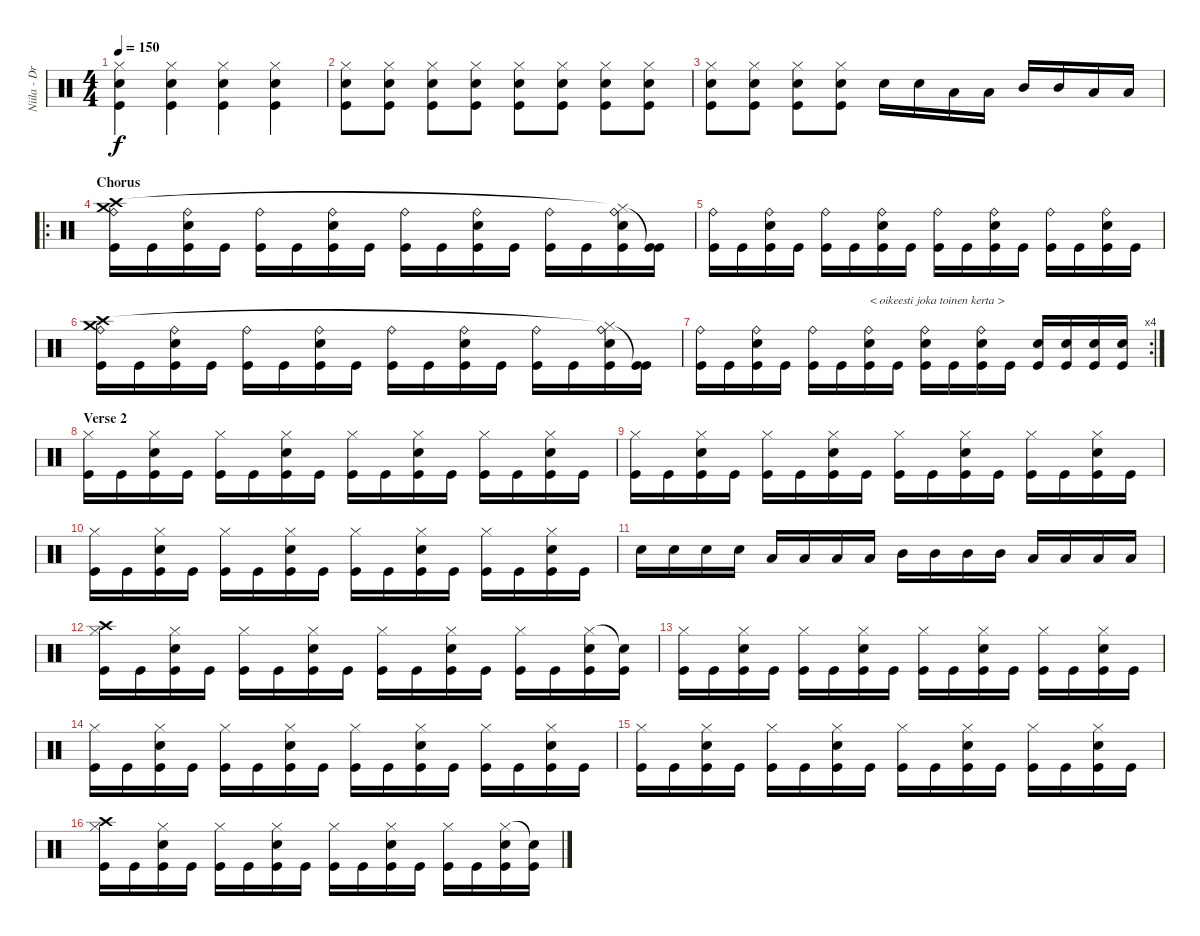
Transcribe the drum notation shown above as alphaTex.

\track ("Niila - Drums" "Niila - Dr") {instrument percussion}
\staff {score}
\articulation defaults
\ts (4 4)
\tempo 150
\clef neutral
\ks c
("Hi-Hat (closed)" "Snare (hit) 2" "Kick (hit)").4{dy f} ("Hi-Hat (closed)" "Snare (hit) 2" "Kick (hit)").4 ("Hi-Hat (closed)" "Snare (hit) 2" "Kick (hit)").4 ("Hi-Hat (closed)" "Snare (hit) 2" "Kick (hit)").4 |
("Hi-Hat (closed)" "Snare (hit) 2" "Kick (hit)").8 ("Hi-Hat (closed)" "Snare (hit) 2" "Kick (hit)").8 ("Hi-Hat (closed)" "Snare (hit) 2" "Kick (hit)").8 ("Hi-Hat (closed)" "Snare (hit) 2" "Kick (hit)").8 ("Hi-Hat (closed)" "Snare (hit) 2" "Kick (hit)").8 ("Hi-Hat (closed)" "Snare (hit) 2" "Kick (hit)").8 ("Hi-Hat (closed)" "Snare (hit) 2" "Kick (hit)").8 ("Hi-Hat (closed)" "Snare (hit) 2" "Kick (hit)").8 |
("Hi-Hat (closed)" "Snare (hit) 2" "Kick (hit)").8 ("Hi-Hat (closed)" "Snare (hit) 2" "Kick (hit)").8 ("Hi-Hat (closed)" "Snare (hit) 2" "Kick (hit)").8 ("Hi-Hat (closed)" "Snare (hit) 2" "Kick (hit)").8 "Snare (hit) 2".16 "Snare (hit) 2".16 "Low Tom (hit)".16 "Low Tom (hit)".16 "Mid Tom (hit)".16 "Mid Tom (hit)".16 "Low Tom (hit)".16 "Low Tom (hit)".16 |
\ro
\section ("" "Chorus")
("Crash medium (hit)" "Ride (bell)" "Kick (hit)" "Crash high (hit)").16 "Kick (hit)".16 ("Ride (bell)" "Snare (hit) 2" "Kick (hit)").16 "Kick (hit)".16 ("Ride (bell)" "Kick (hit)").16 "Kick (hit)".16 ("Ride (bell)" "Snare (hit) 2" "Kick (hit)").16 "Kick (hit)".16 ("Ride (bell)" "Kick (hit)").16 "Kick (hit)".16 ("Ride (bell)" "Snare (hit) 2" "Kick (hit)").16 "Kick (hit)".16 ("Ride (bell)" "Kick (hit)").16 "Kick (hit)".16 ("Ride (bell)" "Snare (hit) 2" "Kick (hit)" "Hi-Hat (closed)"{t}).16 ("Kick (hit)"{t} "Kick (hit)").16 |
("Ride (bell)" "Kick (hit)").16 "Kick (hit)".16 ("Ride (bell)" "Snare (hit) 2" "Kick (hit)").16 "Kick (hit)".16 ("Ride (bell)" "Kick (hit)").16 "Kick (hit)".16 ("Ride (bell)" "Snare (hit) 2" "Kick (hit)").16 "Kick (hit)".16 ("Ride (bell)" "Kick (hit)").16 "Kick (hit)".16 ("Ride (bell)" "Snare (hit) 2" "Kick (hit)").16 "Kick (hit)".16 ("Ride (bell)" "Kick (hit)").16 "Kick (hit)".16 ("Ride (bell)" "Snare (hit) 2" "Kick (hit)").16 "Kick (hit)".16 |
("Crash medium (hit)" "Ride (bell)" "Kick (hit)" "Crash high (hit)").16 "Kick (hit)".16 ("Ride (bell)" "Snare (hit) 2" "Kick (hit)").16 "Kick (hit)".16 ("Ride (bell)" "Kick (hit)").16 "Kick (hit)".16 ("Ride (bell)" "Snare (hit) 2" "Kick (hit)").16 "Kick (hit)".16 ("Ride (bell)" "Kick (hit)").16 "Kick (hit)".16 ("Ride (bell)" "Snare (hit) 2" "Kick (hit)").16 "Kick (hit)".16 ("Ride (bell)" "Kick (hit)").16 "Kick (hit)".16 ("Ride (bell)" "Snare (hit) 2" "Kick (hit)" "Hi-Hat (closed)"{t}).16 ("Kick (hit)"{t} "Kick (hit)").16 |
\rc 4
("Ride (bell)" "Kick (hit)").16 "Kick (hit)".16 ("Ride (bell)" "Snare (hit) 2" "Kick (hit)").16 "Kick (hit)".16 ("Ride (bell)" "Kick (hit)").16 "Kick (hit)".16 ("Ride (bell)" "Snare (hit) 2" "Kick (hit)").16{txt "< oikeesti joka toinen kerta >"} "Kick (hit)".16 ("Ride (bell)" "Snare (hit) 2" "Kick (hit)").16 "Kick (hit)".16 ("Ride (bell)" "Snare (hit) 2" "Kick (hit)").16 "Kick (hit)".16 ("Snare (hit) 2" "Kick (hit)").16 ("Snare (hit) 2" "Kick (hit)").16 ("Snare (hit) 2" "Kick (hit)").16 ("Snare (hit) 2" "Kick (hit)").16 |
\section ("" "Verse 2")
("Hi-Hat (closed)" "Kick (hit)").16 "Kick (hit)".16 ("Hi-Hat (closed)" "Snare (hit) 2" "Kick (hit)").16 "Kick (hit)".16 ("Hi-Hat (closed)" "Kick (hit)").16 "Kick (hit)".16 ("Hi-Hat (closed)" "Snare (hit) 2" "Kick (hit)").16 "Kick (hit)".16 ("Hi-Hat (closed)" "Kick (hit)").16 "Kick (hit)".16 ("Hi-Hat (closed)" "Snare (hit) 2" "Kick (hit)").16 "Kick (hit)".16 ("Hi-Hat (closed)" "Kick (hit)").16 "Kick (hit)".16 ("Hi-Hat (closed)" "Snare (hit) 2" "Kick (hit)").16 "Kick (hit)".16 |
("Hi-Hat (closed)" "Kick (hit)").16 "Kick (hit)".16 ("Hi-Hat (closed)" "Snare (hit) 2" "Kick (hit)").16 "Kick (hit)".16 ("Hi-Hat (closed)" "Kick (hit)").16 "Kick (hit)".16 ("Hi-Hat (closed)" "Snare (hit) 2" "Kick (hit)").16 "Kick (hit)".16 ("Hi-Hat (closed)" "Kick (hit)").16 "Kick (hit)".16 ("Hi-Hat (closed)" "Snare (hit) 2" "Kick (hit)").16 "Kick (hit)".16 ("Hi-Hat (closed)" "Kick (hit)").16 "Kick (hit)".16 ("Hi-Hat (closed)" "Snare (hit) 2" "Kick (hit)").16 "Kick (hit)".16 |
("Hi-Hat (closed)" "Kick (hit)").16 "Kick (hit)".16 ("Hi-Hat (closed)" "Snare (hit) 2" "Kick (hit)").16 "Kick (hit)".16 ("Hi-Hat (closed)" "Kick (hit)").16 "Kick (hit)".16 ("Hi-Hat (closed)" "Snare (hit) 2" "Kick (hit)").16 "Kick (hit)".16 ("Hi-Hat (closed)" "Kick (hit)").16 "Kick (hit)".16 ("Hi-Hat (closed)" "Snare (hit) 2" "Kick (hit)").16 "Kick (hit)".16 ("Hi-Hat (closed)" "Kick (hit)").16 "Kick (hit)".16 ("Hi-Hat (closed)" "Snare (hit) 2" "Kick (hit)").16 "Kick (hit)".16 |
"Snare (hit) 2".16 "Snare (hit) 2".16 "Snare (hit) 2".16 "Snare (hit) 2".16 "Low Tom (hit)".16 "Low Tom (hit)".16 "Low Tom (hit)".16 "Low Tom (hit)".16 "Mid Tom (hit)".16 "Mid Tom (hit)".16 "Mid Tom (hit)".16 "Mid Tom (hit)".16 "Low Tom (hit)".16 "Low Tom (hit)".16 "Low Tom (hit)".16 "Low Tom (hit)".16 |
("Crash high (hit)" "Hi-Hat (closed)" "Kick (hit)").16 "Kick (hit)".16 ("Hi-Hat (closed)" "Snare (hit) 2" "Kick (hit)").16 "Kick (hit)".16 ("Hi-Hat (closed)" "Kick (hit)").16 "Kick (hit)".16 ("Hi-Hat (closed)" "Snare (hit) 2" "Kick (hit)").16 "Kick (hit)".16 ("Hi-Hat (closed)" "Kick (hit)").16 "Kick (hit)".16 ("Hi-Hat (closed)" "Snare (hit) 2" "Kick (hit)").16 "Kick (hit)".16 ("Hi-Hat (closed)" "Kick (hit)").16 "Kick (hit)".16 ("Hi-Hat (closed)" "Snare (hit) 2" "Kick (hit)").16 ("Snare (hit)"{t} "Kick (hit)").16 |
("Hi-Hat (closed)" "Kick (hit)").16 "Kick (hit)".16 ("Hi-Hat (closed)" "Snare (hit) 2" "Kick (hit)").16 "Kick (hit)".16 ("Hi-Hat (closed)" "Kick (hit)").16 "Kick (hit)".16 ("Hi-Hat (closed)" "Snare (hit) 2" "Kick (hit)").16 "Kick (hit)".16 ("Hi-Hat (closed)" "Kick (hit)").16 "Kick (hit)".16 ("Hi-Hat (closed)" "Snare (hit) 2" "Kick (hit)").16 "Kick (hit)".16 ("Hi-Hat (closed)" "Kick (hit)").16 "Kick (hit)".16 ("Hi-Hat (closed)" "Snare (hit) 2" "Kick (hit)").16 "Kick (hit)".16 |
("Hi-Hat (closed)" "Kick (hit)").16 "Kick (hit)".16 ("Hi-Hat (closed)" "Snare (hit) 2" "Kick (hit)").16 "Kick (hit)".16 ("Hi-Hat (closed)" "Kick (hit)").16 "Kick (hit)".16 ("Hi-Hat (closed)" "Snare (hit) 2" "Kick (hit)").16 "Kick (hit)".16 ("Hi-Hat (closed)" "Kick (hit)").16 "Kick (hit)".16 ("Hi-Hat (closed)" "Snare (hit) 2" "Kick (hit)").16 "Kick (hit)".16 ("Hi-Hat (closed)" "Kick (hit)").16 "Kick (hit)".16 ("Hi-Hat (closed)" "Snare (hit) 2" "Kick (hit)").16 "Kick (hit)".16 |
("Hi-Hat (closed)" "Kick (hit)").16 "Kick (hit)".16 ("Hi-Hat (closed)" "Snare (hit) 2" "Kick (hit)").16 "Kick (hit)".16 ("Hi-Hat (closed)" "Kick (hit)").16 "Kick (hit)".16 ("Hi-Hat (closed)" "Snare (hit) 2" "Kick (hit)").16 "Kick (hit)".16 ("Hi-Hat (closed)" "Kick (hit)").16 "Kick (hit)".16 ("Hi-Hat (closed)" "Snare (hit) 2" "Kick (hit)").16 "Kick (hit)".16 ("Hi-Hat (closed)" "Kick (hit)").16 "Kick (hit)".16 ("Hi-Hat (closed)" "Snare (hit) 2" "Kick (hit)").16 "Kick (hit)".16 |
("Crash high (hit)" "Hi-Hat (closed)" "Kick (hit)").16 "Kick (hit)".16 ("Hi-Hat (closed)" "Snare (hit) 2" "Kick (hit)").16 "Kick (hit)".16 ("Hi-Hat (closed)" "Kick (hit)").16 "Kick (hit)".16 ("Hi-Hat (closed)" "Snare (hit) 2" "Kick (hit)").16 "Kick (hit)".16 ("Hi-Hat (closed)" "Kick (hit)").16 "Kick (hit)".16 ("Hi-Hat (closed)" "Snare (hit) 2" "Kick (hit)").16 "Kick (hit)".16 ("Hi-Hat (closed)" "Kick (hit)").16 "Kick (hit)".16 ("Hi-Hat (closed)" "Snare (hit) 2" "Kick (hit)").16 ("Snare (hit)"{t} "Kick (hit)").16
